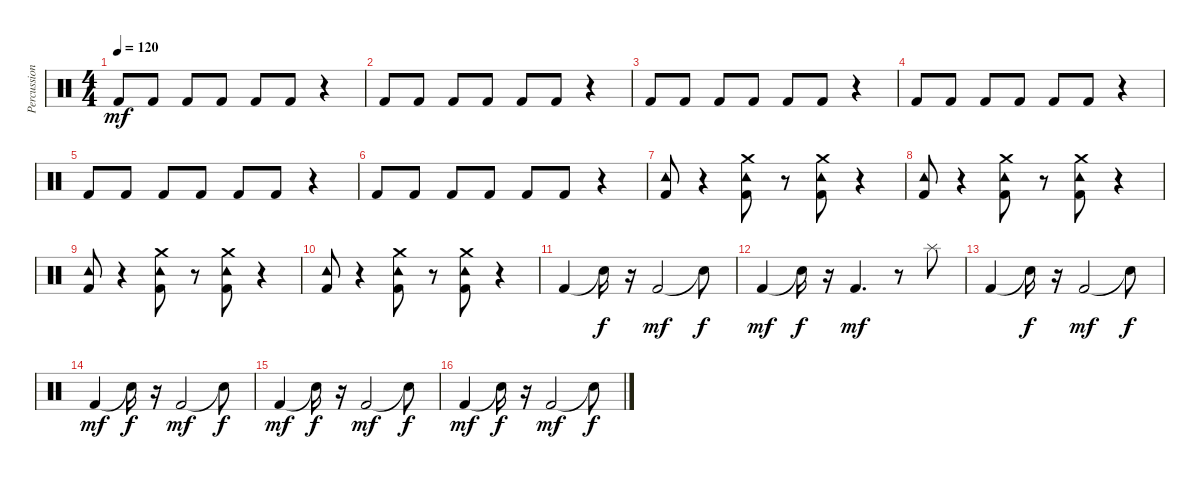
\track ("Percussions" "Percussion") {instrument percussion}
\staff {score}
\articulation defaults
\ts (4 4)
\tempo 120
\clef neutral
\ks c "Kick (hit) 2".8{dy mf} "Kick (hit) 2".8 "Kick (hit) 2".8 "Kick (hit) 2".8 "Kick (hit) 2".8 "Kick (hit) 2".8
r.4 |
"Kick (hit) 2".8 "Kick (hit) 2".8 "Kick (hit) 2".8 "Kick (hit) 2".8 "Kick (hit) 2".8 "Kick (hit) 2".8 r.4 |
"Kick (hit) 2".8 "Kick (hit) 2".8 "Kick (hit) 2".8 "Kick (hit) 2".8 "Kick (hit) 2".8 "Kick (hit) 2".8 r.4 |
"Kick (hit) 2".8 "Kick (hit) 2".8 "Kick (hit) 2".8 "Kick (hit) 2".8 "Kick (hit) 2".8 "Kick (hit) 2".8 r.4 |
"Kick (hit) 2".8 "Kick (hit) 2".8 "Kick (hit) 2".8 "Kick (hit) 2".8 "Kick (hit) 2".8 "Kick (hit) 2".8 r.4 |
"Kick (hit) 2".8 "Kick (hit) 2".8 "Kick (hit) 2".8 "Kick (hit) 2".8 "Kick (hit) 2".8 "Kick (hit) 2".8 r.4 |
("Tambourine (hit)" "Kick (hit) 2").8 r.4 ("Kick (hit) 2" "Tambourine (hit)" "Crash medium (hit)").8 r.8 ("Crash medium (hit)" "Tambourine (hit)" "Kick (hit) 2").8 r.4 |
("Kick (hit) 2" "Tambourine (hit)").8 r.4 ("Crash medium (hit)" "Tambourine (hit)" "Kick (hit) 2").8 r.8 ("Tambourine (hit)" "Kick (hit) 2" "Crash medium (hit)").8 r.4 |
("Tambourine (hit)" "Kick (hit) 2").8 r.4 ("Kick (hit) 2" "Tambourine (hit)" "Crash medium (hit)").8 r.8 ("Crash medium (hit)" "Kick (hit) 2" "Tambourine (hit)").8 r.4 |
("Kick (hit) 2" "Tambourine (hit)").8 r.4 ("Crash medium (hit)" "Tambourine (hit)" "Kick (hit) 2").8 r.8 ("Tambourine (hit)" "Kick (hit) 2" "Crash medium (hit)").8 r.4 |
"Kick (hit) 2".4 "Snare (hit)"{t}.16{dy f} r.16 "Kick (hit) 2".2{dy mf} "Snare (hit)"{t}.8{dy f} |
"Kick (hit) 2".4{dy mf} "Snare (hit)"{t}.16{dy f} r.16 "Kick (hit) 2".4{d dy mf} r.8 "Splash (hit)".8 |
"Kick (hit) 2".4 "Snare (hit)"{t}.16{dy f} r.16 "Kick (hit) 2".2{dy mf} "Snare (hit)"{t}.8{dy f} |
"Kick (hit) 2".4{dy mf} "Snare (hit)"{t}.16{dy f} r.16 "Kick (hit) 2".2{dy mf} "Snare (hit)"{t}.8{dy f} |
"Kick (hit) 2".4{dy mf} "Snare (hit)"{t}.16{dy f} r.16 "Kick (hit) 2".2{dy mf} "Snare (hit)"{t}.8{dy f} |
"Kick (hit) 2".4{dy mf} "Snare (hit)"{t}.16{dy f} r.16 "Kick (hit) 2".2{dy mf} "Snare (hit)"{t}.8{dy f}
